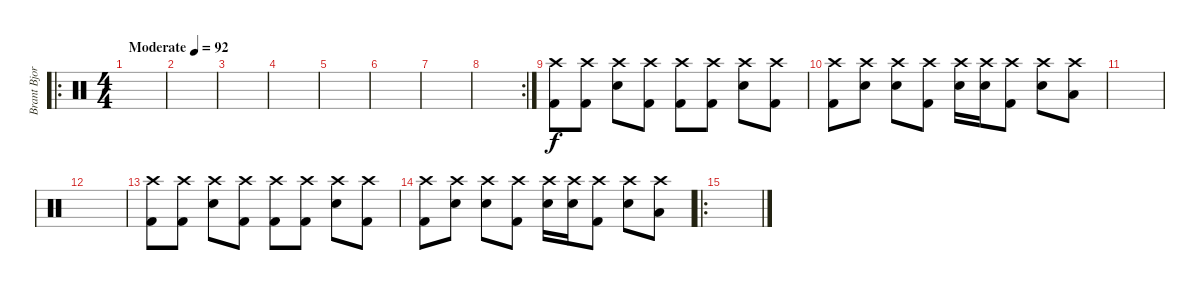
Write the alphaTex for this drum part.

\track ("Brant Bjork" "Brant Bjor") {instrument percussion}
\staff {score}
\articulation defaults
\ro
\ts (4 4)
\tempo (92 "Moderate")
\clef neutral
\ks c
|
|
|
|
|
|
|
\rc 2
|
("Crash high (hit)" "Kick (hit) 2").8 ("Crash high (hit)" "Kick (hit) 2").8 ("Crash high (hit)" "Snare (hit) 2").8 ("Crash high (hit)" "Kick (hit) 2").8 ("Crash high (hit)" "Kick (hit) 2").8 ("Crash high (hit)" "Kick (hit) 2").8 ("Crash high (hit)" "Snare (hit) 2").8 ("Crash high (hit)" "Kick (hit) 2").8 |
("Crash high (hit)" "Kick (hit) 2").8 ("Crash high (hit)" "Snare (hit) 2").8 ("Crash high (hit)" "Snare (hit) 2").8 ("Crash high (hit)" "Kick (hit) 2").8 ("Crash high (hit)" "Snare (hit) 2").16 ("Crash high (hit)" "Snare (hit) 2").16 ("Crash high (hit)" "Kick (hit) 2").8 ("Crash high (hit)" "Snare (hit) 2").8 ("Crash high (hit)" "Low Floor Tom (hit)").8 |
|
|
("Crash high (hit)" "Kick (hit) 2").8 ("Crash high (hit)" "Kick (hit) 2").8 ("Crash high (hit)" "Snare (hit) 2").8 ("Crash high (hit)" "Kick (hit) 2").8 ("Crash high (hit)" "Kick (hit) 2").8 ("Crash high (hit)" "Kick (hit) 2").8 ("Crash high (hit)" "Snare (hit) 2").8 ("Crash high (hit)" "Kick (hit) 2").8 |
("Crash high (hit)" "Kick (hit) 2").8 ("Crash high (hit)" "Snare (hit) 2").8 ("Crash high (hit)" "Snare (hit) 2").8 ("Crash high (hit)" "Kick (hit) 2").8 ("Crash high (hit)" "Snare (hit) 2").16 ("Crash high (hit)" "Snare (hit) 2").16 ("Crash high (hit)" "Kick (hit) 2").8 ("Crash high (hit)" "Snare (hit) 2").8 ("Crash high (hit)" "Low Floor Tom (hit)").8 |
\ro
